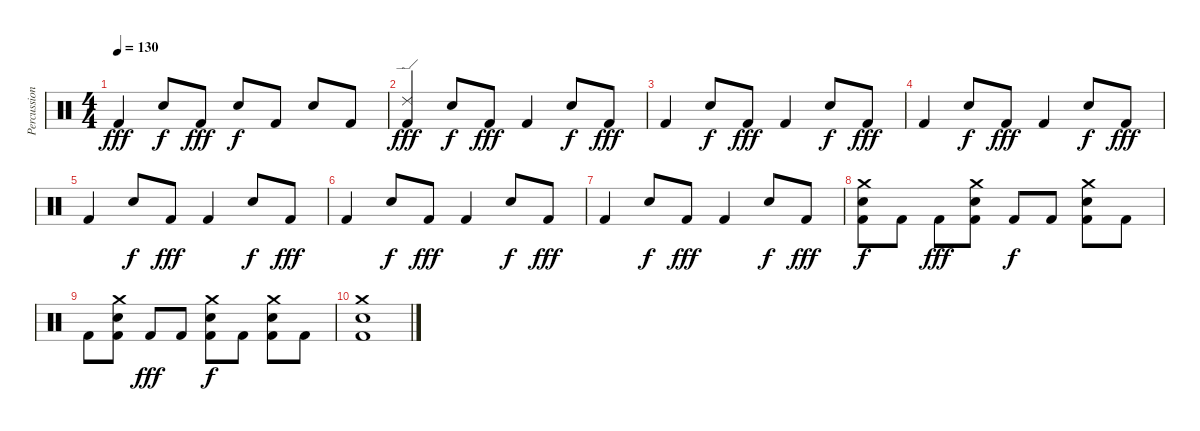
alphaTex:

\track ("Percussion" "Percussion") {instrument percussion}
\staff {score}
\articulation defaults
\ts (4 4)
\tempo 130
\clef neutral
\ks c "Kick (hit) 2".4{dy fff} "Electric Snare (hit)".8{dy f} "Kick (hit) 2".8{dy fff} "Electric Snare (hit)".8{dy f} "Kick (hit) 2".8 "Electric Snare (hit)".8 "Kick (hit) 2".8
|
("Ride (edge) 2" "Kick (hit) 2").4{dy fff} "Electric Snare (hit)".8{dy f} "Kick (hit) 2".8{dy fff} "Kick (hit) 2".4 "Electric Snare (hit)".8{dy f} "Kick (hit) 2".8{dy fff} |
"Kick (hit) 2".4 "Electric Snare (hit)".8{dy f} "Kick (hit) 2".8{dy fff} "Kick (hit) 2".4 "Electric Snare (hit)".8{dy f} "Kick (hit) 2".8{dy fff} |
"Kick (hit) 2".4 "Electric Snare (hit)".8{dy f} "Kick (hit) 2".8{dy fff} "Kick (hit) 2".4 "Electric Snare (hit)".8{dy f} "Kick (hit) 2".8{dy fff} |
"Kick (hit) 2".4 "Electric Snare (hit)".8{dy f} "Kick (hit) 2".8{dy fff} "Kick (hit) 2".4 "Electric Snare (hit)".8{dy f} "Kick (hit) 2".8{dy fff} |
"Kick (hit) 2".4 "Electric Snare (hit)".8{dy f} "Kick (hit) 2".8{dy fff} "Kick (hit) 2".4 "Electric Snare (hit)".8{dy f} "Kick (hit) 2".8{dy fff} |
"Kick (hit) 2".4 "Electric Snare (hit)".8{dy f} "Kick (hit) 2".8{dy fff} "Kick (hit) 2".4 "Electric Snare (hit)".8{dy f} "Kick (hit) 2".8{dy fff} |
("Electric Snare (hit)" "Crash medium (hit)" "Kick (hit) 2").8{dy f} "Kick (hit) 2".8 "Kick (hit) 2".8{dy fff} ("Electric Snare (hit)" "Crash medium (hit)" "Kick (hit) 2").8 "Kick (hit) 2".8{dy f} "Kick (hit) 2".8 ("Electric Snare (hit)" "Crash medium (hit)" "Kick (hit) 2").8 "Kick (hit) 2".8 |
"Kick (hit) 2".8 ("Electric Snare (hit)" "Crash medium (hit)" "Kick (hit) 2").8 "Kick (hit) 2".8{dy fff} "Kick (hit) 2".8 ("Electric Snare (hit)" "Crash medium (hit)" "Kick (hit) 2").8{dy f} "Kick (hit) 2".8 ("Electric Snare (hit)" "Crash medium (hit)" "Kick (hit) 2").8 "Kick (hit) 2".8 |
("Electric Snare (hit)" "Crash medium (hit)" "Kick (hit) 2").1
